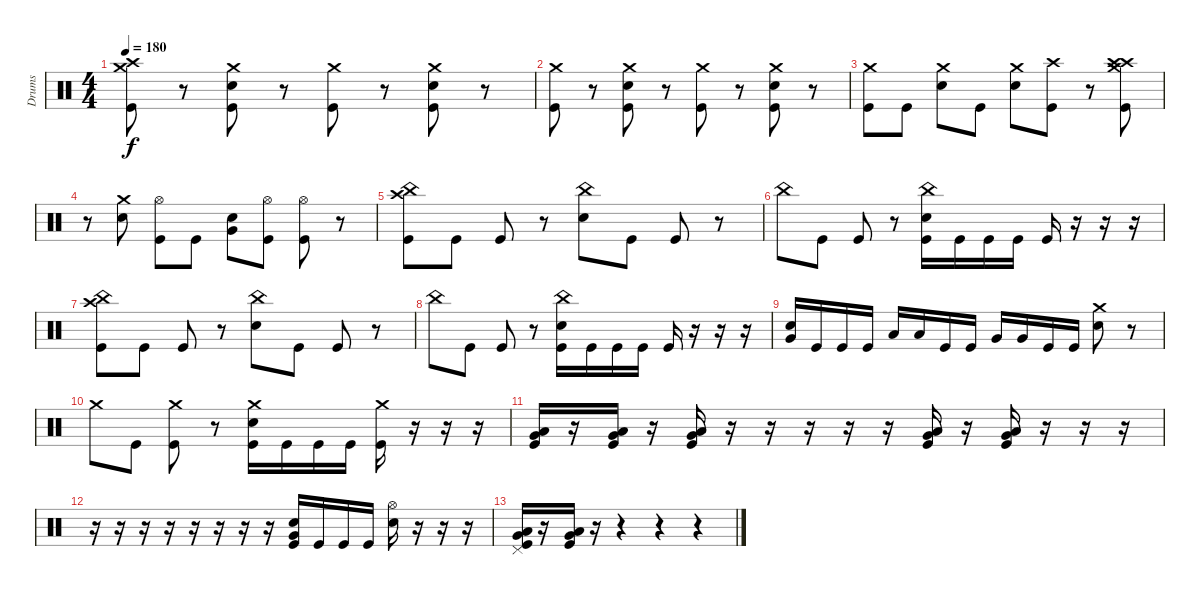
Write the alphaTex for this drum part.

\track ("Drums" "Drums") {instrument percussion}
\staff {score}
\articulation defaults
\ts (4 4)
\tempo 180
\clef neutral
\ks c
("Crash high (hit)" "Crash medium (hit)" "Kick (hit)").8{dy f} r.8 ("Kick (hit)" "Snare (hit) 2" "Crash medium (hit)").8 r.8 ("Crash medium (hit)" "Kick (hit)").8 r.8 ("Crash medium (hit)" "Kick (hit)" "Snare (hit) 2").8 r.8 |
("Crash medium (hit)" "Kick (hit)").8 r.8 ("Kick (hit)" "Snare (hit) 2" "Crash medium (hit)").8 r.8 ("Crash medium (hit)" "Kick (hit)").8 r.8 ("Crash medium (hit)" "Kick (hit)" "Snare (hit) 2").8 r.8 |
("Crash medium (hit)" "Kick (hit)").8 "Kick (hit)".8 ("Snare (hit) 2" "Crash medium (hit)").8 "Kick (hit)".8 ("Crash medium (hit)" "Snare (hit) 2").8 ("Kick (hit)" "Crash high (hit)").8 r.8 ("Crash medium (hit)" "Crash high (hit)" "Crash high (hit)" "Kick (hit)").8 |
r.8 ("Crash medium (hit)" "Snare (hit) 2").8 ("Kick (hit)" "Hi-Hat (open)").8 "Kick (hit)".8 ("Snare (hit) 2" "Very Low Tom (hit)").8 ("Kick (hit)" "Hi-Hat (open)").8 ("Kick (hit)" "Hi-Hat (open)").8 r.8 |
("Crash high (hit)" "China (hit)" "Kick (hit)").8 "Kick (hit)".8 "Kick (hit)".8 r.8 ("China (hit)" "Snare (hit) 2").8 "Kick (hit)".8 "Kick (hit)".8 r.8 |
"China (hit)".8 "Kick (hit)".8 "Kick (hit)".8 r.8 ("Kick (hit)" "China (hit)" "Snare (hit) 2").16 "Kick (hit)".16 "Kick (hit)".16 "Kick (hit)".16 "Kick (hit)".16 r.16 r.16 r.16 |
("Crash high (hit)" "China (hit)" "Kick (hit)").8 "Kick (hit)".8 "Kick (hit)".8 r.8 ("China (hit)" "Snare (hit) 2").8 "Kick (hit)".8 "Kick (hit)".8 r.8 |
"China (hit)".8 "Kick (hit)".8 "Kick (hit)".8 r.8 ("Kick (hit)" "China (hit)" "Snare (hit) 2").16 "Kick (hit)".16 "Kick (hit)".16 "Kick (hit)".16 "Kick (hit)".16 r.16 r.16 r.16 |
("Snare (hit) 2" "Very Low Tom (hit)").16 "Kick (hit)".16 "Kick (hit)".16 "Kick (hit)".16 "Low Tom (hit)".16 "Low Tom (hit)".16 "Kick (hit)".16 "Kick (hit)".16 "Very Low Tom (hit)".16 "Very Low Tom (hit)".16 "Kick (hit)".16 "Kick (hit)".16 ("Crash medium (hit)" "Snare (hit) 2").8 r.8 |
"Crash medium (hit)".8 "Kick (hit)".8 ("Kick (hit)" "Crash medium (hit)").8 r.8 ("Kick (hit)" "Crash medium (hit)" "Snare (hit) 2").16 "Kick (hit)".16 "Kick (hit)".16 "Kick (hit)".16 ("Kick (hit)" "Crash medium (hit)").16 r.16 r.16 r.16 |
("Kick (hit)" "Very Low Tom (hit)" "Low Floor Tom (hit)").16 r.16 ("Kick (hit)" "Very Low Tom (hit)" "Low Floor Tom (hit)").16 r.16 ("Kick (hit)" "Very Low Tom (hit)" "Low Floor Tom (hit)").16 r.16 r.16 r.16 r.16 r.16 ("Kick (hit)" "Very Low Tom (hit)" "Low Floor Tom (hit)").16 r.16 ("Kick (hit)" "Very Low Tom (hit)" "Low Floor Tom (hit)").16 r.16 r.16 r.16 |
r.16 r.16 r.16 r.16 r.16 r.16 r.16 r.16 ("Very Low Tom (hit)" "Snare (hit) 2" "Kick (hit)").16 "Kick (hit)".16 "Kick (hit)".16 "Kick (hit)".16 ("Hi-Hat (open)" "Snare (hit) 2").16 r.16 r.16 r.16 |
("Kick (hit)" "Very Low Tom (hit)" "Low Floor Tom (hit)" "Pedal Hi-Hat (hit)").16 r.16 ("Kick (hit)" "Very Low Tom (hit)" "Low Floor Tom (hit)").16 r.16 r.4 r.4 r.4
